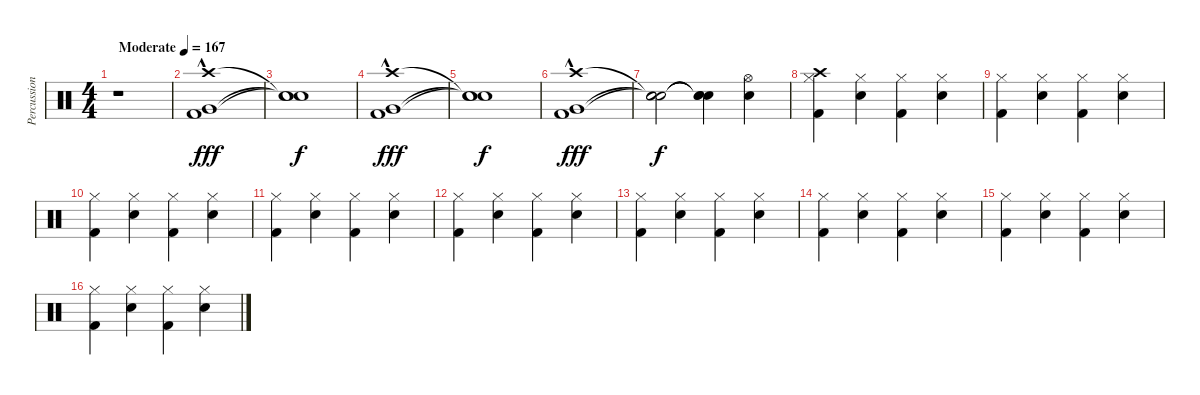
\track ("Percussion" "Percussion") {instrument percussion}
\staff {score}
\articulation defaults
\ts (4 4)
\tempo (167 "Moderate")
\clef neutral
\ks c
r.1{dy fff} |
("Kick (hit) 2"{hac} "Very Low Tom (hit)"{hac} "Crash high (hit)"{hac}).1 |
("Snare (hit)"{t} "Snare (hit)"{t} "Snare (hit)"{t}).1{dy f} |
("Kick (hit) 2"{hac} "Very Low Tom (hit)"{hac} "Crash high (hit)"{hac}).1{dy fff} |
("Snare (hit)"{t} "Snare (hit)"{t} "Snare (hit)"{t}).1{dy f} |
("Kick (hit) 2"{hac} "Very Low Tom (hit)"{hac} "Crash high (hit)"{hac}).1{dy fff} |
("Snare (hit)"{t} "Snare (hit)"{t} "Snare (hit)"{t}).2{dy f} ("Snare (hit)"{t} "Snare (hit)"{t} "Snare (hit)"{t}).4 ("Hi-Hat (open)" "Electric Snare (hit)").4 |
("Kick (hit) 2" "Hi-Hat (closed)" "Crash high (hit)").4 ("Hi-Hat (closed)" "Electric Snare (hit)").4 ("Kick (hit) 2" "Hi-Hat (closed)").4 ("Hi-Hat (closed)" "Electric Snare (hit)").4 |
("Kick (hit) 2" "Hi-Hat (closed)").4 ("Hi-Hat (closed)" "Electric Snare (hit)").4 ("Kick (hit) 2" "Hi-Hat (closed)").4 ("Hi-Hat (closed)" "Electric Snare (hit)").4 |
("Kick (hit) 2" "Hi-Hat (closed)").4 ("Hi-Hat (closed)" "Electric Snare (hit)").4 ("Kick (hit) 2" "Hi-Hat (closed)").4 ("Hi-Hat (closed)" "Electric Snare (hit)").4 |
("Kick (hit) 2" "Hi-Hat (closed)").4 ("Hi-Hat (closed)" "Electric Snare (hit)").4 ("Kick (hit) 2" "Hi-Hat (closed)").4 ("Hi-Hat (closed)" "Electric Snare (hit)").4 |
("Kick (hit) 2" "Hi-Hat (closed)").4 ("Hi-Hat (closed)" "Electric Snare (hit)").4 ("Kick (hit) 2" "Hi-Hat (closed)").4 ("Hi-Hat (closed)" "Electric Snare (hit)").4 |
("Kick (hit) 2" "Hi-Hat (closed)").4 ("Hi-Hat (closed)" "Electric Snare (hit)").4 ("Kick (hit) 2" "Hi-Hat (closed)").4 ("Hi-Hat (closed)" "Electric Snare (hit)").4 |
("Kick (hit) 2" "Hi-Hat (closed)").4 ("Hi-Hat (closed)" "Electric Snare (hit)").4 ("Kick (hit) 2" "Hi-Hat (closed)").4 ("Hi-Hat (closed)" "Electric Snare (hit)").4 |
("Kick (hit) 2" "Hi-Hat (closed)").4 ("Hi-Hat (closed)" "Electric Snare (hit)").4 ("Kick (hit) 2" "Hi-Hat (closed)").4 ("Hi-Hat (closed)" "Electric Snare (hit)").4 |
("Kick (hit) 2" "Hi-Hat (closed)").4 ("Hi-Hat (closed)" "Electric Snare (hit)").4 ("Kick (hit) 2" "Hi-Hat (closed)").4 ("Hi-Hat (closed)" "Electric Snare (hit)").4
